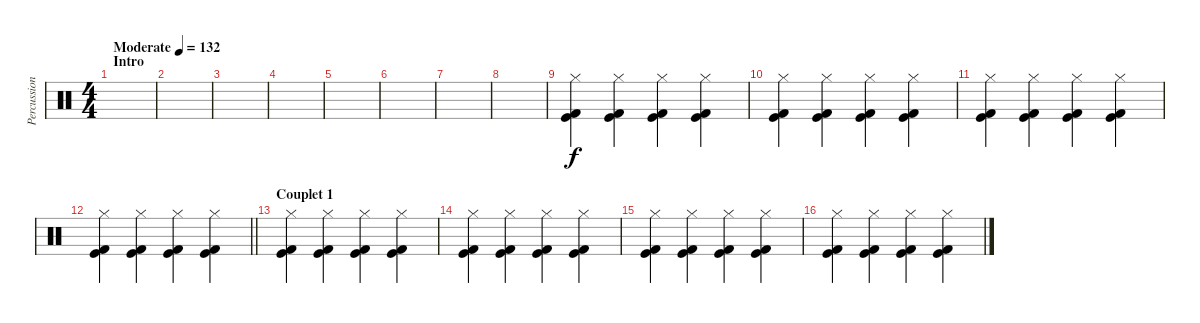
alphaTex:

\track ("Percussions" "Percussion") {instrument percussion}
\staff {score}
\articulation defaults
\ts (4 4)
\section ("" "Intro")
\tempo (132 "Moderate")
\clef neutral
\ks c
|
|
|
|
|
|
|
|
("Kick (hit) 2" "Kick (hit)" "Hi-Hat (closed)").4 ("Kick (hit) 2" "Kick (hit)" "Hi-Hat (closed)").4 ("Kick (hit) 2" "Kick (hit)" "Hi-Hat (closed)").4 ("Kick (hit) 2" "Kick (hit)" "Hi-Hat (closed)").4 |
("Kick (hit) 2" "Kick (hit)" "Hi-Hat (closed)").4 ("Kick (hit) 2" "Kick (hit)" "Hi-Hat (closed)").4 ("Kick (hit) 2" "Kick (hit)" "Hi-Hat (closed)").4 ("Kick (hit) 2" "Kick (hit)" "Hi-Hat (closed)").4 |
("Kick (hit) 2" "Kick (hit)" "Hi-Hat (closed)").4 ("Kick (hit) 2" "Kick (hit)" "Hi-Hat (closed)").4 ("Kick (hit) 2" "Kick (hit)" "Hi-Hat (closed)").4 ("Kick (hit) 2" "Kick (hit)" "Hi-Hat (closed)").4 |
\barLineRight lightlight
("Kick (hit) 2" "Kick (hit)" "Hi-Hat (closed)").4 ("Kick (hit) 2" "Kick (hit)" "Hi-Hat (closed)").4 ("Kick (hit) 2" "Kick (hit)" "Hi-Hat (closed)").4 ("Kick (hit) 2" "Kick (hit)" "Hi-Hat (closed)").4 |
\section ("" "Couplet 1")
("Kick (hit) 2" "Kick (hit)" "Hi-Hat (closed)").4 ("Kick (hit) 2" "Kick (hit)" "Hi-Hat (closed)").4 ("Kick (hit) 2" "Kick (hit)" "Hi-Hat (closed)").4 ("Kick (hit) 2" "Kick (hit)" "Hi-Hat (closed)").4 |
("Kick (hit) 2" "Kick (hit)" "Hi-Hat (closed)").4 ("Kick (hit) 2" "Kick (hit)" "Hi-Hat (closed)").4 ("Kick (hit) 2" "Kick (hit)" "Hi-Hat (closed)").4 ("Kick (hit) 2" "Kick (hit)" "Hi-Hat (closed)").4 |
("Kick (hit) 2" "Kick (hit)" "Hi-Hat (closed)").4 ("Kick (hit) 2" "Kick (hit)" "Hi-Hat (closed)").4 ("Kick (hit) 2" "Kick (hit)" "Hi-Hat (closed)").4 ("Kick (hit) 2" "Kick (hit)" "Hi-Hat (closed)").4 |
("Kick (hit) 2" "Kick (hit)" "Hi-Hat (closed)").4 ("Kick (hit) 2" "Kick (hit)" "Hi-Hat (closed)").4 ("Kick (hit) 2" "Kick (hit)" "Hi-Hat (closed)").4 ("Kick (hit) 2" "Kick (hit)" "Hi-Hat (closed)").4
